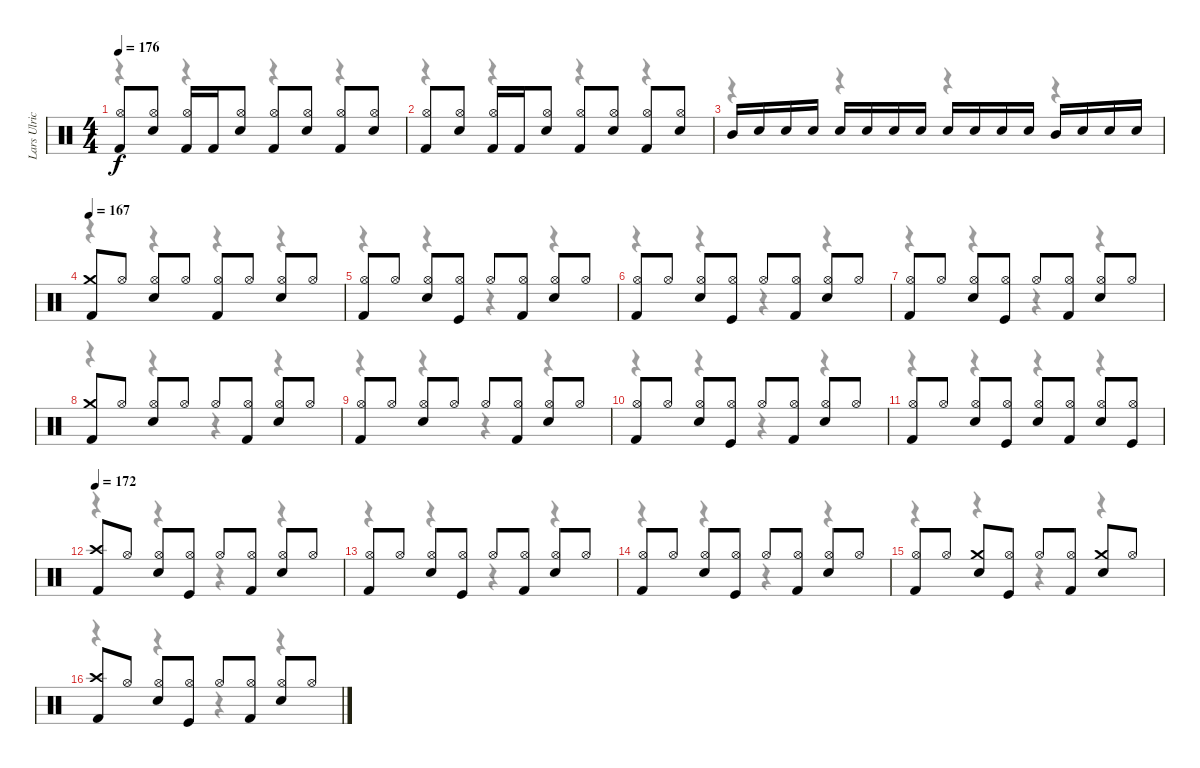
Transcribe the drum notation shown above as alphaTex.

\track ("Lars Ulrich" "Lars Ulric") {instrument percussion}
\staff {score}
\articulation defaults
\voice
\ts (4 4)
\tempo 176
\clef neutral
\ks c
("Hi-Hat (open)" "Kick (hit) 2").8{dy f} ("Hi-Hat (open)" "Snare (hit) 2").8 ("Hi-Hat (open)" "Kick (hit) 2").16 "Kick (hit) 2".16 ("Hi-Hat (open)" "Snare (hit) 2").8 ("Hi-Hat (open)" "Kick (hit) 2").8 ("Hi-Hat (open)" "Snare (hit) 2").8 ("Hi-Hat (open)" "Kick (hit) 2").8 ("Hi-Hat (open)" "Snare (hit) 2").8 |
("Kick (hit) 2" "Hi-Hat (open)").8 ("Hi-Hat (open)" "Snare (hit) 2").8 ("Hi-Hat (open)" "Kick (hit) 2").16 "Kick (hit) 2".16 ("Hi-Hat (open)" "Snare (hit) 2").8 ("Hi-Hat (open)" "Kick (hit) 2").8 ("Hi-Hat (open)" "Snare (hit) 2").8 ("Hi-Hat (open)" "Kick (hit) 2").8 ("Hi-Hat (open)" "Snare (hit) 2").8 |
"Mid Tom (hit)".16 "Snare (hit) 2".16 "Snare (hit) 2".16 "Snare (hit) 2".16 "Snare (hit) 2".16 "Snare (hit) 2".16 "Snare (hit) 2".16 "Snare (hit) 2".16 "Snare (hit) 2".16 "Snare (hit) 2".16 "Snare (hit) 2".16 "Snare (hit) 2".16 "Mid Tom (hit)".16 "Snare (hit) 2".16 "Snare (hit) 2".16 "Snare (hit) 2".16 |
\tempo 167
("Crash medium (hit)" "Kick (hit) 2").8 "Hi-Hat (open)".8 ("Hi-Hat (open)" "Snare (hit) 2").8 "Hi-Hat (open)".8 ("Hi-Hat (open)" "Kick (hit) 2").8 "Hi-Hat (open)".8 ("Hi-Hat (open)" "Snare (hit) 2").8 "Hi-Hat (open)".8 |
("Hi-Hat (open)" "Kick (hit) 2").8 "Hi-Hat (open)".8 ("Hi-Hat (open)" "Snare (hit) 2").8 ("Hi-Hat (open)" "Kick (hit)").8 "Hi-Hat (open)".8 ("Hi-Hat (open)" "Kick (hit) 2").8 ("Hi-Hat (open)" "Snare (hit) 2").8 "Hi-Hat (open)".8 |
("Hi-Hat (open)" "Kick (hit) 2").8 "Hi-Hat (open)".8 ("Hi-Hat (open)" "Snare (hit) 2").8 ("Hi-Hat (open)" "Kick (hit)").8 "Hi-Hat (open)".8 ("Hi-Hat (open)" "Kick (hit) 2").8 ("Hi-Hat (open)" "Snare (hit) 2").8 "Hi-Hat (open)".8 |
("Hi-Hat (open)" "Kick (hit) 2").8 "Hi-Hat (open)".8 ("Hi-Hat (open)" "Snare (hit) 2").8 ("Hi-Hat (open)" "Kick (hit)").8 "Hi-Hat (open)".8 ("Hi-Hat (open)" "Kick (hit) 2").8 ("Hi-Hat (open)" "Snare (hit) 2").8 "Hi-Hat (open)".8 |
("Kick (hit) 2" "Crash medium (hit)").8 "Hi-Hat (open)".8 ("Hi-Hat (open)" "Snare (hit) 2").8 "Hi-Hat (open)".8 "Hi-Hat (open)".8 ("Hi-Hat (open)" "Kick (hit) 2").8 ("Hi-Hat (open)" "Snare (hit) 2").8 "Hi-Hat (open)".8 |
("Hi-Hat (open)" "Kick (hit) 2").8 "Hi-Hat (open)".8 ("Hi-Hat (open)" "Snare (hit) 2").8 "Hi-Hat (open)".8 "Hi-Hat (open)".8 ("Hi-Hat (open)" "Kick (hit) 2").8 ("Hi-Hat (open)" "Snare (hit) 2").8 "Hi-Hat (open)".8 |
("Hi-Hat (open)" "Kick (hit) 2").8 "Hi-Hat (open)".8 ("Hi-Hat (open)" "Snare (hit) 2").8 ("Hi-Hat (open)" "Kick (hit)").8 "Hi-Hat (open)".8 ("Hi-Hat (open)" "Kick (hit) 2").8 ("Hi-Hat (open)" "Snare (hit) 2").8 "Hi-Hat (open)".8 |
("Hi-Hat (open)" "Kick (hit) 2").8 "Hi-Hat (open)".8 ("Hi-Hat (open)" "Snare (hit) 2").8 ("Hi-Hat (open)" "Kick (hit)").8 ("Hi-Hat (open)" "Snare (hit) 2").8 ("Hi-Hat (open)" "Kick (hit) 2").8 ("Hi-Hat (open)" "Snare (hit) 2").8 ("Hi-Hat (open)" "Kick (hit)").8 |
\tempo 172
("Kick (hit) 2" "Crash high (hit)").8 "Hi-Hat (open)".8 ("Hi-Hat (open)" "Snare (hit) 2").8 ("Hi-Hat (open)" "Kick (hit)").8 "Hi-Hat (open)".8 ("Hi-Hat (open)" "Kick (hit) 2").8 ("Hi-Hat (open)" "Snare (hit) 2").8 "Hi-Hat (open)".8 |
("Hi-Hat (open)" "Kick (hit) 2").8 "Hi-Hat (open)".8 ("Hi-Hat (open)" "Snare (hit) 2").8 ("Hi-Hat (open)" "Kick (hit)").8 "Hi-Hat (open)".8 ("Hi-Hat (open)" "Kick (hit) 2").8 ("Hi-Hat (open)" "Snare (hit) 2").8 "Hi-Hat (open)".8 |
("Hi-Hat (open)" "Kick (hit) 2").8 "Hi-Hat (open)".8 ("Hi-Hat (open)" "Snare (hit) 2").8 ("Hi-Hat (open)" "Kick (hit)").8 "Hi-Hat (open)".8 ("Hi-Hat (open)" "Kick (hit) 2").8 ("Hi-Hat (open)" "Snare (hit) 2").8 "Hi-Hat (open)".8 |
("Hi-Hat (open)" "Kick (hit) 2").8 "Hi-Hat (open)".8 ("Snare (hit) 2" "Crash medium (hit)").8 ("Hi-Hat (open)" "Kick (hit)").8 "Hi-Hat (open)".8 ("Hi-Hat (open)" "Kick (hit) 2").8 ("Snare (hit) 2" "Crash medium (hit)").8 "Hi-Hat (open)".8 |
("Kick (hit) 2" "Crash high (hit)").8 "Hi-Hat (open)".8 ("Hi-Hat (open)" "Snare (hit) 2").8 ("Hi-Hat (open)" "Kick (hit)").8 "Hi-Hat (open)".8 ("Hi-Hat (open)" "Kick (hit) 2").8 ("Hi-Hat (open)" "Snare (hit) 2").8 "Hi-Hat (open)".8
\voice
\clef neutral
\ottava regular
\simile none
\ks c
r.4{dy f} r.4 r.4 r.4 |
r.4 r.4 r.4 r.4 |
r.4 r.4 r.4 r.4 |
r.4 r.4 r.4 r.4 |
r.4 r.4 r.4 r.4 |
r.4 r.4 r.4 r.4 |
r.4 r.4 r.4 r.4 |
r.4 r.4 r.4 r.4 |
r.4 r.4 r.4 r.4 |
r.4 r.4 r.4 r.4 |
r.4 r.4 r.4 r.4 |
r.4 r.4 r.4 r.4 |
r.4 r.4 r.4 r.4 |
r.4 r.4 r.4 r.4 |
r.4 r.4 r.4 r.4 |
r.4 r.4 r.4 r.4
